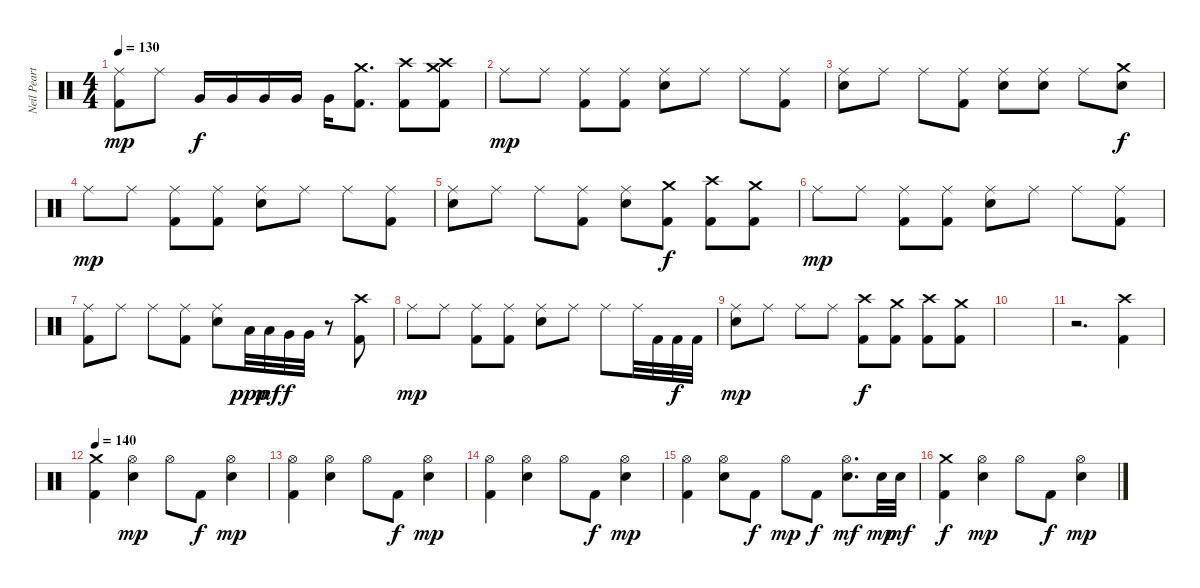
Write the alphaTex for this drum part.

\track ("Neil Peart, Percusión" "Neil Peart") {instrument percussion}
\staff {score}
\articulation defaults
\ts (4 4)
\tempo 130
\clef neutral
\ks c
("Ride (middle)" "Kick (hit) 2").8{dy mp} "Ride (middle)".8 "Very Low Tom (hit)".16{dy f} "Very Low Tom (hit)".16 "Very Low Tom (hit)".16 "Very Low Tom (hit)".16 "Very Low Tom (hit)".16 ("Crash medium (hit)" "Kick (hit) 2").8{d} ("Crash high (hit)" "Kick (hit) 2").8 ("Crash medium (hit)" "Crash high (hit)" "Kick (hit) 2").8 |
"Ride (middle)".8{dy mp} "Ride (middle)".8 ("Ride (middle)" "Kick (hit) 2").8 ("Ride (middle)" "Kick (hit) 2").8 ("Ride (middle)" "Electric Snare (hit)").8 "Ride (middle)".8 "Ride (middle)".8 ("Ride (middle)" "Kick (hit) 2").8 |
("Ride (middle)" "Electric Snare (hit)").8 "Ride (middle)".8 "Ride (middle)".8 ("Ride (middle)" "Kick (hit) 2").8 ("Ride (middle)" "Electric Snare (hit)").8 ("Ride (middle)" "Electric Snare (hit)").8 "Ride (middle)".8 ("Crash medium (hit)" "Electric Snare (hit)").8{dy f} |
"Ride (middle)".8{dy mp} "Ride (middle)".8 ("Ride (middle)" "Kick (hit) 2").8 ("Ride (middle)" "Kick (hit) 2").8 ("Ride (middle)" "Electric Snare (hit)").8 "Ride (middle)".8 "Ride (middle)".8 ("Ride (middle)" "Kick (hit) 2").8 |
("Ride (middle)" "Electric Snare (hit)").8 "Ride (middle)".8 "Ride (middle)".8 ("Ride (middle)" "Kick (hit) 2").8 ("Ride (middle)" "Electric Snare (hit)").8 ("Crash medium (hit)" "Kick (hit) 2").8{dy f} ("Crash high (hit)" "Kick (hit) 2").8 ("Crash medium (hit)" "Kick (hit) 2").8 |
"Ride (middle)".8{dy mp} "Ride (middle)".8 ("Ride (middle)" "Kick (hit) 2").8 ("Ride (middle)" "Kick (hit) 2").8 ("Ride (middle)" "Electric Snare (hit)").8 "Ride (middle)".8 "Ride (middle)".8 ("Ride (middle)" "Kick (hit) 2").8 |
("Ride (middle)" "Kick (hit) 2").8 "Ride (middle)".8 "Ride (middle)".8 ("Ride (middle)" "Kick (hit) 2").8 ("Ride (middle)" "Electric Snare (hit)").8 "Low Tom (hit)".32{dy ppp} "Low Tom (hit)".32{dy mf} "Very Low Tom (hit)".32{dy f} "Very Low Tom (hit)".32 r.8 ("Crash high (hit)" "Kick (hit) 2").8 |
"Ride (middle)".8{dy mp} "Ride (middle)".8 ("Ride (middle)" "Kick (hit) 2").8 ("Ride (middle)" "Kick (hit) 2").8 ("Ride (middle)" "Electric Snare (hit)").8 "Ride (middle)".8 "Ride (middle)".8 "Ride (middle)".32 "Kick (hit) 2".32 "Kick (hit) 2".32{dy f} "Kick (hit) 2".32 |
("Ride (middle)" "Electric Snare (hit)").8{dy mp} "Ride (middle)".8 "Ride (middle)".8 "Ride (middle)".8 ("Crash high (hit)" "Kick (hit) 2").8{dy f} ("Crash medium (hit)" "Kick (hit) 2").8 ("Crash high (hit)" "Kick (hit) 2").8 ("Crash medium (hit)" "Kick (hit) 2").8 |
|
r.2{d} ("Crash high (hit)" "Kick (hit) 2").4 |
\tempo 140
("Crash medium (hit)" "Kick (hit) 2").4 ("Hi-Hat (open)" "Electric Snare (hit)").4{dy mp} "Hi-Hat (open)".8 "Kick (hit) 2".8{dy f} ("Hi-Hat (open)" "Electric Snare (hit)").4{dy mp} |
("Hi-Hat (open)" "Kick (hit) 2").4 ("Hi-Hat (open)" "Electric Snare (hit)").4 "Hi-Hat (open)".8 "Kick (hit) 2".8{dy f} ("Hi-Hat (open)" "Electric Snare (hit)").4{dy mp} |
("Hi-Hat (open)" "Kick (hit) 2").4 ("Hi-Hat (open)" "Electric Snare (hit)").4 "Hi-Hat (open)".8 "Kick (hit) 2".8{dy f} ("Hi-Hat (open)" "Electric Snare (hit)").4{dy mp} |
("Hi-Hat (open)" "Kick (hit) 2").4 ("Hi-Hat (open)" "Electric Snare (hit)").8 "Kick (hit) 2".8{dy f} "Hi-Hat (open)".8{dy mp} "Kick (hit) 2".8{dy f} ("Hi-Hat (open)" "Electric Snare (hit)").8{d dy mf} "Electric Snare (hit)".32{dy mp} "Electric Snare (hit)".32{dy mf} |
("Crash medium (hit)" "Kick (hit) 2").4{dy f} ("Hi-Hat (open)" "Electric Snare (hit)").4{dy mp} "Hi-Hat (open)".8 "Kick (hit) 2".8{dy f} ("Hi-Hat (open)" "Electric Snare (hit)").4{dy mp}
